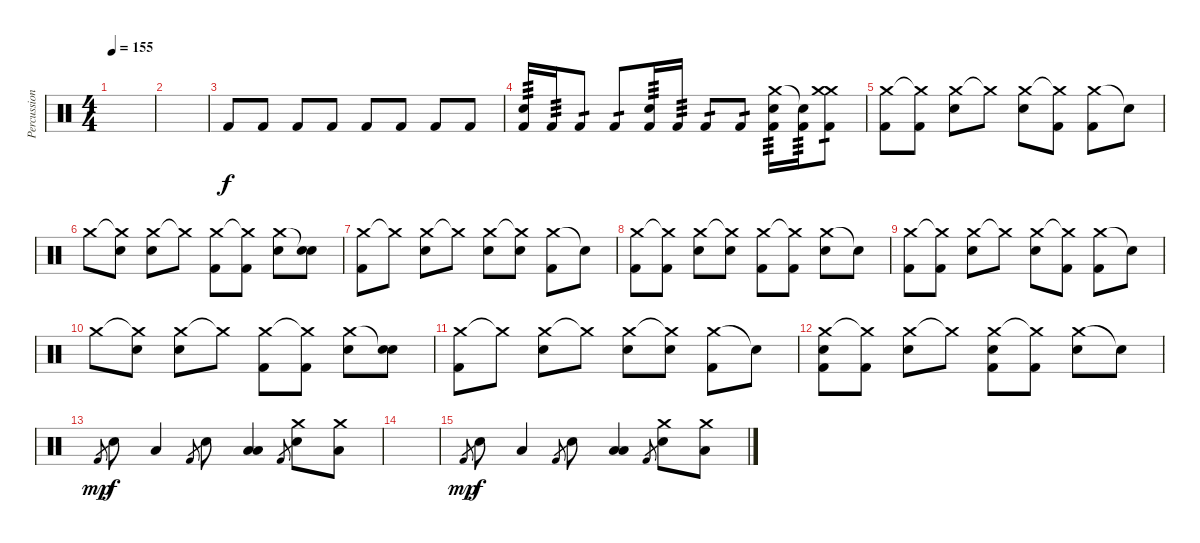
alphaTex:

\track ("Percussioni" "Percussion") {instrument percussion}
\staff {score}
\articulation defaults
\ts (4 4)
\tempo 155
\clef neutral
\ks c
|
|
"Kick (hit) 2".8 "Kick (hit) 2".8 "Kick (hit) 2".8 "Kick (hit) 2".8 "Kick (hit) 2".8 "Kick (hit) 2".8 "Kick (hit) 2".8 "Kick (hit) 2".8 |
("Snare (hit) 2" "Kick (hit) 2").16{tp 3} "Kick (hit) 2".16{tp 3} "Kick (hit) 2".8{tp 1} "Kick (hit) 2".8{tp 1} ("Snare (hit) 2" "Kick (hit) 2").16{tp 3} "Kick (hit) 2".16{tp 3} "Kick (hit) 2".8{tp 1} "Kick (hit) 2".8{tp 1} ("Crash medium (hit)" "Snare (hit) 2" "Kick (hit) 2").16{tp 3} ("Snare (hit)"{t} "Kick (hit) 2").16{tp 3} ("Crash medium (hit)" "Crash medium (hit)" "Kick (hit) 2").8{tp 1} |
("Crash medium (hit)" "Kick (hit) 2").8 ("Crash medium (hit)"{t} "Kick (hit) 2").8 ("Crash medium (hit)" "Snare (hit) 2").8 "Crash medium (hit)"{t}.8 ("Crash medium (hit)" "Snare (hit) 2").8 ("Crash medium (hit)"{t} "Kick (hit) 2").8 ("Crash medium (hit)" "Kick (hit) 2").8 "Snare (hit)"{t}.8 |
"Crash medium (hit)".8 ("Crash medium (hit)"{t} "Snare (hit) 2").8 ("Crash medium (hit)" "Snare (hit) 2").8 "Crash medium (hit)"{t}.8 ("Crash medium (hit)" "Kick (hit) 2").8 ("Crash medium (hit)"{t} "Kick (hit) 2").8 ("Crash medium (hit)" "Snare (hit) 2").8 ("Snare (hit)"{t} "Snare (hit) 2").8 |
("Crash medium (hit)" "Kick (hit) 2").8 "Crash medium (hit)"{t}.8 ("Crash medium (hit)" "Snare (hit) 2").8 "Crash medium (hit)"{t}.8 ("Crash medium (hit)" "Snare (hit) 2").8 ("Crash medium (hit)"{t} "Snare (hit) 2").8 ("Crash medium (hit)" "Kick (hit) 2").8 "Snare (hit)"{t}.8 |
("Crash medium (hit)" "Kick (hit) 2").8 ("Crash medium (hit)"{t} "Kick (hit) 2").8 ("Crash medium (hit)" "Snare (hit) 2").8 ("Crash medium (hit)"{t} "Snare (hit) 2").8 ("Crash medium (hit)" "Kick (hit) 2").8 ("Crash medium (hit)"{t} "Kick (hit) 2").8 ("Crash medium (hit)" "Snare (hit) 2").8 "Snare (hit)"{t}.8 |
("Crash medium (hit)" "Kick (hit) 2").8 ("Crash medium (hit)"{t} "Kick (hit) 2").8 ("Crash medium (hit)" "Snare (hit) 2").8 "Crash medium (hit)"{t}.8 ("Crash medium (hit)" "Snare (hit) 2").8 ("Crash medium (hit)"{t} "Kick (hit) 2").8 ("Crash medium (hit)" "Kick (hit) 2").8 "Snare (hit)"{t}.8 |
"Crash medium (hit)".8 ("Crash medium (hit)"{t} "Snare (hit) 2").8 ("Crash medium (hit)" "Snare (hit) 2").8 "Crash medium (hit)"{t}.8 ("Crash medium (hit)" "Kick (hit) 2").8 ("Crash medium (hit)"{t} "Kick (hit) 2").8 ("Crash medium (hit)" "Snare (hit) 2").8 ("Snare (hit)"{t} "Snare (hit) 2").8 |
("Crash medium (hit)" "Kick (hit) 2").8 "Crash medium (hit)"{t}.8 ("Crash medium (hit)" "Snare (hit) 2").8 "Crash medium (hit)"{t}.8 ("Crash medium (hit)" "Snare (hit) 2").8 ("Crash medium (hit)"{t} "Snare (hit) 2").8 ("Crash medium (hit)" "Kick (hit) 2").8 "Snare (hit)"{t}.8 |
("Crash medium (hit)" "Snare (hit) 2" "Kick (hit) 2").8 ("Crash medium (hit)"{t} "Kick (hit) 2").8 ("Crash medium (hit)" "Snare (hit) 2").8 "Crash medium (hit)"{t}.8 ("Crash medium (hit)" "Snare (hit) 2" "Kick (hit) 2").8 ("Crash medium (hit)"{t} "Kick (hit) 2").8 ("Crash medium (hit)" "Snare (hit) 2").8 "Snare (hit)"{t}.8 |
"Kick (hit) 2".8{gr dy mp} "Snare (hit) 2".8{dy f} "Low Tom (hit)".4 "Kick (hit) 2".8{gr} "Snare (hit) 2".8 ("Low Floor Tom (hit)" "Low Tom (hit)").4 "Kick (hit) 2".8{gr} ("Snare (hit) 2" "Crash medium (hit)").8 ("Crash medium (hit)" "Low Tom (hit)").8 |
|
"Kick (hit) 2".8{gr dy mp} "Snare (hit) 2".8{dy f} "Low Tom (hit)".4 "Kick (hit) 2".8{gr} "Snare (hit) 2".8 ("Low Floor Tom (hit)" "Low Tom (hit)").4 "Kick (hit) 2".8{gr} ("Snare (hit) 2" "Crash medium (hit)").8 ("Crash medium (hit)" "Low Tom (hit)").8
